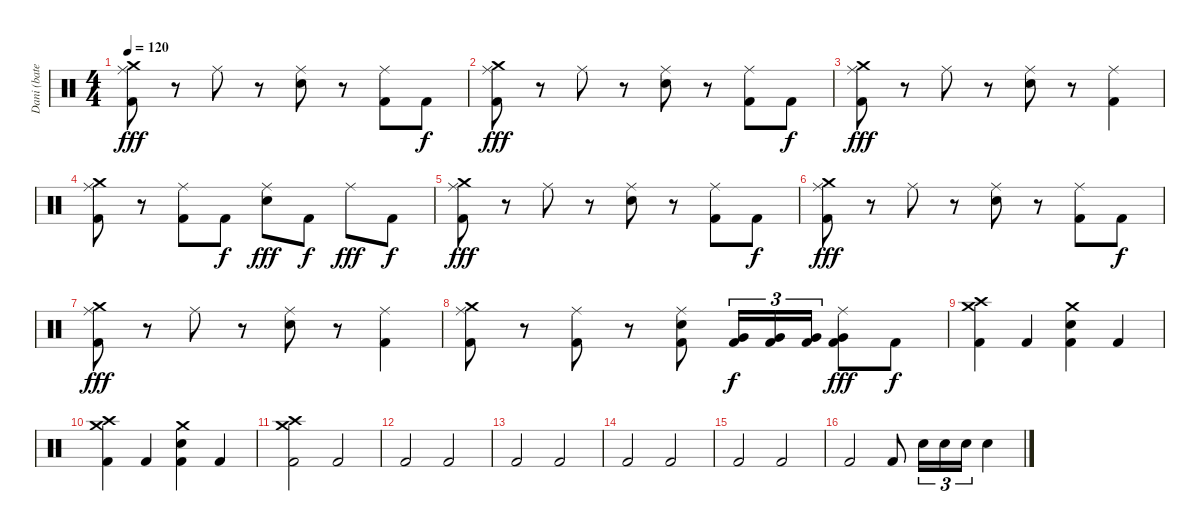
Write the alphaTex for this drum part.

\track ("Dani (batería)" "Dani (bate") {instrument percussion}
\staff {score}
\articulation defaults
\ts (4 4)
\tempo 120
\clef neutral
\ks c
("Crash medium (hit)" "Ride (middle)" "Kick (hit) 2").8{dy fff} r.8 "Ride (middle)".8 r.8 ("Ride (middle)" "Electric Snare (hit)").8 r.8 ("Ride (middle)" "Kick (hit) 2").8 "Kick (hit) 2".8{dy f} |
("Crash medium (hit)" "Ride (middle)" "Kick (hit) 2").8{dy fff} r.8 "Ride (middle)".8 r.8 ("Ride (middle)" "Electric Snare (hit)").8 r.8 ("Ride (middle)" "Kick (hit) 2").8 "Kick (hit) 2".8{dy f} |
("Crash medium (hit)" "Ride (middle)" "Kick (hit) 2").8{dy fff} r.8 "Ride (middle)".8 r.8 ("Ride (middle)" "Electric Snare (hit)").8 r.8 ("Ride (middle)" "Kick (hit) 2").4 |
("Crash medium (hit)" "Ride (middle)" "Kick (hit) 2").8 r.8 ("Ride (middle)" "Kick (hit) 2").8 "Kick (hit) 2".8{dy f} ("Ride (middle)" "Electric Snare (hit)").8{dy fff} "Kick (hit) 2".8{dy f} "Ride (middle)".8{dy fff} "Kick (hit) 2".8{dy f} |
("Crash medium (hit)" "Ride (middle)" "Kick (hit) 2").8{dy fff} r.8 "Ride (middle)".8 r.8 ("Ride (middle)" "Electric Snare (hit)").8 r.8 ("Ride (middle)" "Kick (hit) 2").8 "Kick (hit) 2".8{dy f} |
("Crash medium (hit)" "Ride (middle)" "Kick (hit) 2").8{dy fff} r.8 "Ride (middle)".8 r.8 ("Ride (middle)" "Electric Snare (hit)").8 r.8 ("Ride (middle)" "Kick (hit) 2").8 "Kick (hit) 2".8{dy f} |
("Crash medium (hit)" "Ride (middle)" "Kick (hit) 2").8{dy fff} r.8 "Ride (middle)".8 r.8 ("Ride (middle)" "Electric Snare (hit)").8 r.8 ("Ride (middle)" "Kick (hit) 2").4 |
("Crash medium (hit)" "Ride (middle)" "Kick (hit) 2").8 r.8 ("Ride (middle)" "Kick (hit) 2").8 r.8 ("Ride (middle)" "Electric Snare (hit)" "Kick (hit) 2").8 ("Very Low Tom (hit)" "Kick (hit) 2").16{tu (3 2) dy f} ("Very Low Tom (hit)" "Kick (hit) 2").16{tu (3 2)} ("Very Low Tom (hit)" "Kick (hit) 2").16{tu (3 2)} ("Ride (middle)" "Very Low Tom (hit)" "Kick (hit) 2").8{dy fff} "Kick (hit) 2".8{dy f} |
("Crash medium (hit)" "Crash high (hit)" "Kick (hit) 2").4 "Kick (hit) 2".4 ("Crash medium (hit)" "Electric Snare (hit)" "Kick (hit) 2").4 "Kick (hit) 2".4 |
("Crash medium (hit)" "Crash high (hit)" "Kick (hit) 2").4 "Kick (hit) 2".4 ("Crash medium (hit)" "Electric Snare (hit)" "Kick (hit) 2").4 "Kick (hit) 2".4 |
("Crash medium (hit)" "Crash high (hit)" "Kick (hit) 2").2 "Kick (hit) 2".2 |
"Kick (hit) 2".2 "Kick (hit) 2".2 |
"Kick (hit) 2".2 "Kick (hit) 2".2 |
"Kick (hit) 2".2 "Kick (hit) 2".2 |
"Kick (hit) 2".2 "Kick (hit) 2".2 |
"Kick (hit) 2".2 "Kick (hit) 2".8 "Electric Snare (hit)".16{tu (3 2)} "Electric Snare (hit)".16{tu (3 2)} "Electric Snare (hit)".16{tu (3 2)} "Electric Snare (hit)".4
